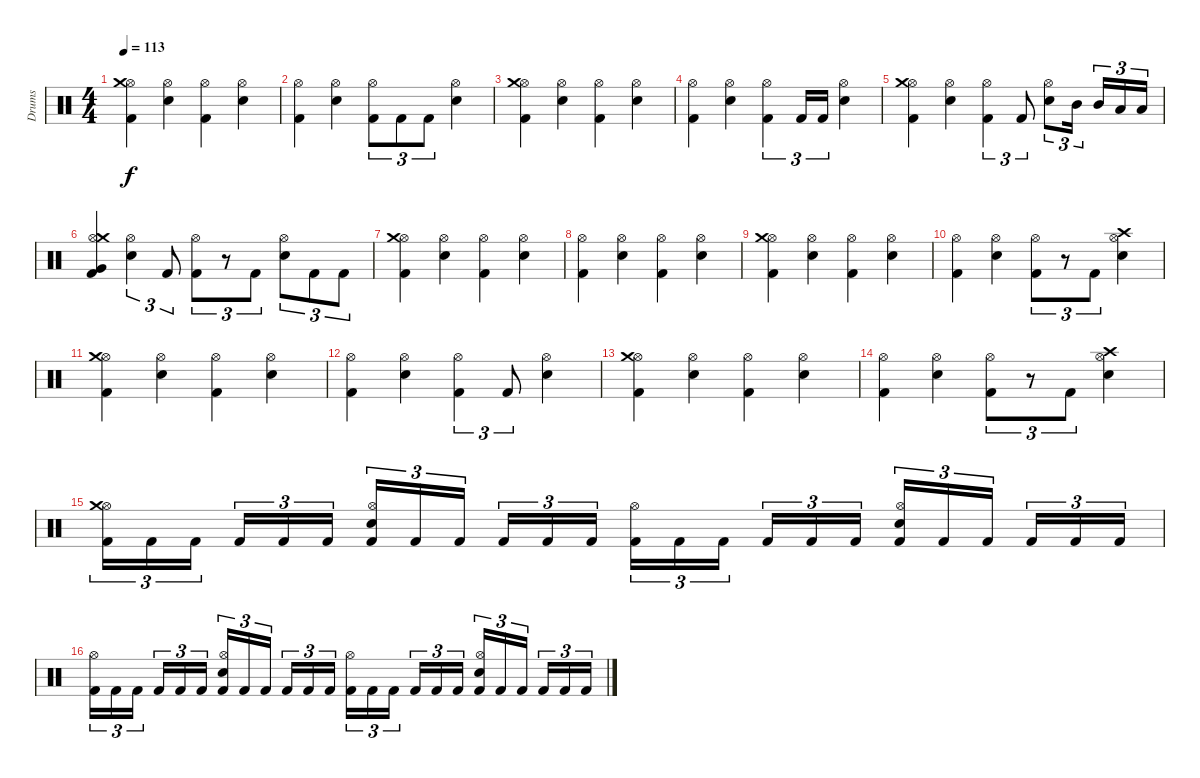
\track ("Drums" "Drums") {instrument percussion}
\staff {score}
\articulation defaults
\ts (4 4)
\tempo 113
\clef neutral
\ks c
("Kick (hit) 2" "Hi-Hat (open)" "Crash medium (hit)").4{dy f} ("Snare (hit) 2" "Hi-Hat (open)").4 ("Kick (hit) 2" "Hi-Hat (open)").4 ("Snare (hit) 2" "Hi-Hat (open)").4 |
("Kick (hit) 2" "Hi-Hat (open)").4 ("Snare (hit) 2" "Hi-Hat (open)").4 ("Kick (hit) 2" "Hi-Hat (open)").8{tu (3 2)} "Kick (hit) 2".8{tu (3 2)} "Kick (hit) 2".8{tu (3 2)} ("Snare (hit) 2" "Hi-Hat (open)").4 |
("Kick (hit) 2" "Hi-Hat (open)" "Crash medium (hit)").4 ("Snare (hit) 2" "Hi-Hat (open)").4 ("Kick (hit) 2" "Hi-Hat (open)").4 ("Snare (hit) 2" "Hi-Hat (open)").4 |
("Kick (hit) 2" "Hi-Hat (open)").4 ("Snare (hit) 2" "Hi-Hat (open)").4 ("Kick (hit) 2" "Hi-Hat (open)").4{tu (3 2)} "Kick (hit) 2".16{tu (3 2)} "Kick (hit) 2".16{tu (3 2)} ("Snare (hit) 2" "Hi-Hat (open)").4 |
("Kick (hit) 2" "Hi-Hat (open)" "Crash medium (hit)").4 ("Snare (hit) 2" "Hi-Hat (open)").4 ("Kick (hit) 2" "Hi-Hat (open)").4{tu (3 2)} "Kick (hit) 2".8{tu (3 2)} ("Snare (hit) 2" "Hi-Hat (open)").8{tu (3 2)} "Mid Tom (hit)".16{tu (3 2)} "Mid Tom (hit)".16{tu (3 2)} "Low Tom (hit)".16{tu (3 2)} "Low Tom (hit)".16{tu (3 2)} |
("Kick (hit) 2" "Very Low Tom (hit)" "Hi-Hat (open)" "Crash medium (hit)").4 ("Snare (hit) 2" "Hi-Hat (open)").4{tu (3 2)} "Kick (hit) 2".8{tu (3 2)} ("Kick (hit) 2" "Hi-Hat (open)").8{tu (3 2)} r.8{tu (3 2)} "Kick (hit) 2".8{tu (3 2)} ("Snare (hit) 2" "Hi-Hat (open)").8{tu (3 2)} "Kick (hit) 2".8{tu (3 2)} "Kick (hit) 2".8{tu (3 2)} |
("Kick (hit) 2" "Hi-Hat (open)" "Crash medium (hit)").4 ("Snare (hit) 2" "Hi-Hat (open)").4 ("Kick (hit) 2" "Hi-Hat (open)").4 ("Snare (hit) 2" "Hi-Hat (open)").4 |
("Kick (hit) 2" "Hi-Hat (open)").4 ("Snare (hit) 2" "Hi-Hat (open)").4 ("Kick (hit) 2" "Hi-Hat (open)").4 ("Snare (hit) 2" "Hi-Hat (open)").4 |
("Kick (hit) 2" "Hi-Hat (open)" "Crash medium (hit)").4 ("Snare (hit) 2" "Hi-Hat (open)").4 ("Kick (hit) 2" "Hi-Hat (open)").4 ("Snare (hit) 2" "Hi-Hat (open)").4 |
("Kick (hit) 2" "Hi-Hat (open)").4 ("Snare (hit) 2" "Hi-Hat (open)").4 ("Kick (hit) 2" "Hi-Hat (open)").8{tu (3 2)} r.8{tu (3 2)} "Kick (hit) 2".8{tu (3 2)} ("Snare (hit) 2" "Hi-Hat (open)" "Crash high (hit)").4 |
("Kick (hit) 2" "Hi-Hat (open)" "Crash medium (hit)").4 ("Snare (hit) 2" "Hi-Hat (open)").4 ("Kick (hit) 2" "Hi-Hat (open)").4 ("Snare (hit) 2" "Hi-Hat (open)").4 |
("Kick (hit) 2" "Hi-Hat (open)").4 ("Snare (hit) 2" "Hi-Hat (open)").4 ("Kick (hit) 2" "Hi-Hat (open)").4{tu (3 2)} "Kick (hit) 2".8{tu (3 2)} ("Snare (hit) 2" "Hi-Hat (open)").4 |
("Kick (hit) 2" "Hi-Hat (open)" "Crash medium (hit)").4 ("Snare (hit) 2" "Hi-Hat (open)").4 ("Kick (hit) 2" "Hi-Hat (open)").4 ("Snare (hit) 2" "Hi-Hat (open)").4 |
("Kick (hit) 2" "Hi-Hat (open)").4 ("Snare (hit) 2" "Hi-Hat (open)").4 ("Kick (hit) 2" "Hi-Hat (open)").8{tu (3 2)} r.8{tu (3 2)} "Kick (hit) 2".8{tu (3 2)} ("Snare (hit) 2" "Hi-Hat (open)" "Crash high (hit)").4 |
("Kick (hit) 2" "Hi-Hat (open)" "Crash medium (hit)").16{tu (3 2)} "Kick (hit) 2".16{tu (3 2)} "Kick (hit) 2".16{tu (3 2)} "Kick (hit) 2".16{tu (3 2)} "Kick (hit) 2".16{tu (3 2)} "Kick (hit) 2".16{tu (3 2)} ("Kick (hit) 2" "Snare (hit) 2" "Hi-Hat (open)").16{tu (3 2)} "Kick (hit) 2".16{tu (3 2)} "Kick (hit) 2".16{tu (3 2)} "Kick (hit) 2".16{tu (3 2)} "Kick (hit) 2".16{tu (3 2)} "Kick (hit) 2".16{tu (3 2)} ("Kick (hit) 2" "Hi-Hat (open)").16{tu (3 2)} "Kick (hit) 2".16{tu (3 2)} "Kick (hit) 2".16{tu (3 2)} "Kick (hit) 2".16{tu (3 2)} "Kick (hit) 2".16{tu (3 2)} "Kick (hit) 2".16{tu (3 2)} ("Kick (hit) 2" "Snare (hit) 2" "Hi-Hat (open)").16{tu (3 2)} "Kick (hit) 2".16{tu (3 2)} "Kick (hit) 2".16{tu (3 2)} "Kick (hit) 2".16{tu (3 2)} "Kick (hit) 2".16{tu (3 2)} "Kick (hit) 2".16{tu (3 2)} |
("Kick (hit) 2" "Hi-Hat (open)").16{tu (3 2)} "Kick (hit) 2".16{tu (3 2)} "Kick (hit) 2".16{tu (3 2)} "Kick (hit) 2".16{tu (3 2)} "Kick (hit) 2".16{tu (3 2)} "Kick (hit) 2".16{tu (3 2)} ("Kick (hit) 2" "Snare (hit) 2" "Hi-Hat (open)").16{tu (3 2)} "Kick (hit) 2".16{tu (3 2)} "Kick (hit) 2".16{tu (3 2)} "Kick (hit) 2".16{tu (3 2)} "Kick (hit) 2".16{tu (3 2)} "Kick (hit) 2".16{tu (3 2)} ("Kick (hit) 2" "Hi-Hat (open)").16{tu (3 2)} "Kick (hit) 2".16{tu (3 2)} "Kick (hit) 2".16{tu (3 2)} "Kick (hit) 2".16{tu (3 2)} "Kick (hit) 2".16{tu (3 2)} "Kick (hit) 2".16{tu (3 2)} ("Kick (hit) 2" "Snare (hit) 2" "Hi-Hat (open)").16{tu (3 2)} "Kick (hit) 2".16{tu (3 2)} "Kick (hit) 2".16{tu (3 2)} "Kick (hit) 2".16{tu (3 2)} "Kick (hit) 2".16{tu (3 2)} "Kick (hit) 2".16{tu (3 2)}
